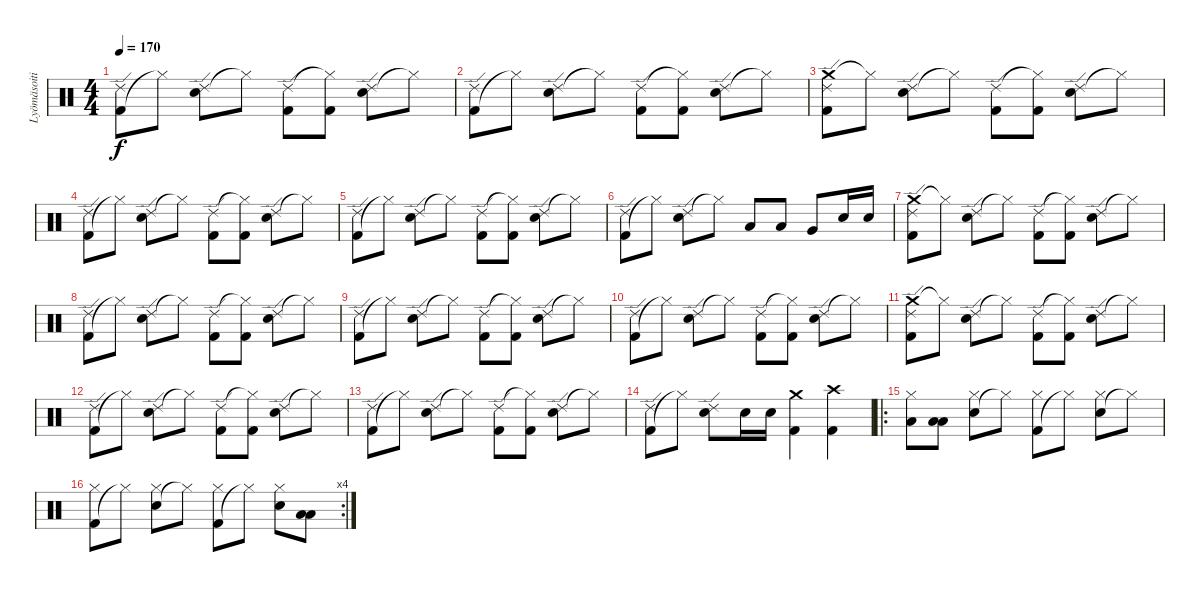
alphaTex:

\track ("Lyömäsoitin" "Lyömäsoiti") {instrument percussion}
\staff {score}
\articulation defaults
\ts (4 4)
\tempo 170
\clef neutral
\ks c
("Kick (hit) 2" "Ride (edge) 2").8{dy f} "Hi-Hat (closed)"{t}.8 ("Electric Snare (hit)" "Ride (edge) 2").8 "Hi-Hat (closed)"{t}.8 ("Kick (hit) 2" "Ride (edge) 2").8 ("Kick (hit) 2" "Hi-Hat (closed)"{t}).8 ("Electric Snare (hit)" "Ride (edge) 2").8 "Hi-Hat (closed)"{t}.8 |
("Kick (hit) 2" "Ride (edge) 2").8 "Hi-Hat (closed)"{t}.8 ("Electric Snare (hit)" "Ride (edge) 2").8 "Hi-Hat (closed)"{t}.8 ("Kick (hit) 2" "Ride (edge) 2").8 ("Kick (hit) 2" "Hi-Hat (closed)"{t}).8 ("Electric Snare (hit)" "Ride (edge) 2").8 "Hi-Hat (closed)"{t}.8 |
("Crash medium (hit)" "Kick (hit) 2" "Ride (edge) 2").8 "Hi-Hat (closed)"{t}.8 ("Electric Snare (hit)" "Ride (edge) 2").8 "Hi-Hat (closed)"{t}.8 ("Kick (hit) 2" "Ride (edge) 2").8 ("Kick (hit) 2" "Hi-Hat (closed)"{t}).8 ("Electric Snare (hit)" "Ride (edge) 2").8 "Hi-Hat (closed)"{t}.8 |
("Kick (hit) 2" "Ride (edge) 2").8 "Hi-Hat (closed)"{t}.8 ("Electric Snare (hit)" "Ride (edge) 2").8 "Hi-Hat (closed)"{t}.8 ("Kick (hit) 2" "Ride (edge) 2").8 ("Kick (hit) 2" "Hi-Hat (closed)"{t}).8 ("Electric Snare (hit)" "Ride (edge) 2").8 "Hi-Hat (closed)"{t}.8 |
("Kick (hit) 2" "Ride (edge) 2").8 "Hi-Hat (closed)"{t}.8 ("Electric Snare (hit)" "Ride (edge) 2").8 "Hi-Hat (closed)"{t}.8 ("Kick (hit) 2" "Ride (edge) 2").8 ("Kick (hit) 2" "Hi-Hat (closed)"{t}).8 ("Electric Snare (hit)" "Ride (edge) 2").8 "Hi-Hat (closed)"{t}.8 |
("Kick (hit) 2" "Ride (edge) 2").8 "Hi-Hat (closed)"{t}.8 ("Electric Snare (hit)" "Ride (edge) 2").8 "Hi-Hat (closed)"{t}.8 "Low Tom (hit)".8 "Low Tom (hit)".8 "Very Low Tom (hit)".8 "Electric Snare (hit)".16 "Electric Snare (hit)".16 |
("Crash medium (hit)" "Kick (hit) 2" "Ride (edge) 2").8 "Hi-Hat (closed)"{t}.8 ("Electric Snare (hit)" "Ride (edge) 2").8 "Hi-Hat (closed)"{t}.8 ("Kick (hit) 2" "Ride (edge) 2").8 ("Kick (hit) 2" "Hi-Hat (closed)"{t}).8 ("Electric Snare (hit)" "Ride (edge) 2").8 "Hi-Hat (closed)"{t}.8 |
("Kick (hit) 2" "Ride (edge) 2").8 "Hi-Hat (closed)"{t}.8 ("Electric Snare (hit)" "Ride (edge) 2").8 "Hi-Hat (closed)"{t}.8 ("Kick (hit) 2" "Ride (edge) 2").8 ("Kick (hit) 2" "Hi-Hat (closed)"{t}).8 ("Electric Snare (hit)" "Ride (edge) 2").8 "Hi-Hat (closed)"{t}.8 |
("Kick (hit) 2" "Ride (edge) 2").8 "Hi-Hat (closed)"{t}.8 ("Electric Snare (hit)" "Ride (edge) 2").8 "Hi-Hat (closed)"{t}.8 ("Kick (hit) 2" "Ride (edge) 2").8 ("Kick (hit) 2" "Hi-Hat (closed)"{t}).8 ("Electric Snare (hit)" "Ride (edge) 2").8 "Hi-Hat (closed)"{t}.8 |
("Kick (hit) 2" "Ride (edge) 2").8 "Hi-Hat (closed)"{t}.8 ("Electric Snare (hit)" "Ride (edge) 2").8 "Hi-Hat (closed)"{t}.8 ("Kick (hit) 2" "Ride (edge) 2").8 ("Kick (hit) 2" "Hi-Hat (closed)"{t}).8 ("Electric Snare (hit)" "Ride (edge) 2").8 "Hi-Hat (closed)"{t}.8 |
("Crash medium (hit)" "Kick (hit) 2" "Ride (edge) 2").8 "Hi-Hat (closed)"{t}.8 ("Electric Snare (hit)" "Ride (edge) 2").8 "Hi-Hat (closed)"{t}.8 ("Kick (hit) 2" "Ride (edge) 2").8 ("Kick (hit) 2" "Hi-Hat (closed)"{t}).8 ("Electric Snare (hit)" "Ride (edge) 2").8 "Hi-Hat (closed)"{t}.8 |
("Kick (hit) 2" "Ride (edge) 2").8 "Hi-Hat (closed)"{t}.8 ("Electric Snare (hit)" "Ride (edge) 2").8 "Hi-Hat (closed)"{t}.8 ("Kick (hit) 2" "Ride (edge) 2").8 ("Kick (hit) 2" "Hi-Hat (closed)"{t}).8 ("Electric Snare (hit)" "Ride (edge) 2").8 "Hi-Hat (closed)"{t}.8 |
("Kick (hit) 2" "Ride (edge) 2").8 "Hi-Hat (closed)"{t}.8 ("Electric Snare (hit)" "Ride (edge) 2").8 "Hi-Hat (closed)"{t}.8 ("Kick (hit) 2" "Ride (edge) 2").8 ("Kick (hit) 2" "Hi-Hat (closed)"{t}).8 ("Electric Snare (hit)" "Ride (edge) 2").8 "Hi-Hat (closed)"{t}.8 |
("Kick (hit) 2" "Ride (edge) 2").8 "Hi-Hat (closed)"{t}.8 ("Electric Snare (hit)" "Ride (edge) 2").8 "Electric Snare (hit)".16 "Electric Snare (hit)".16 ("Crash medium (hit)" "Kick (hit) 2").4 ("Crash high (hit)" "Kick (hit) 2").4 |
\ro
("Low Tom (hit)" "Hi-Hat (closed)").8 ("Low Tom (hit)" "Low Tom (hit)").8 ("Electric Snare (hit)" "Hi-Hat (closed)").8 "Hi-Hat (closed)"{t}.8 ("Kick (hit) 2" "Hi-Hat (closed)").8 "Hi-Hat (closed)"{t}.8 ("Electric Snare (hit)" "Hi-Hat (closed)").8 "Hi-Hat (closed)"{t}.8 |
\rc 4
("Kick (hit) 2" "Hi-Hat (closed)").8 "Hi-Hat (closed)"{t}.8 ("Electric Snare (hit)" "Hi-Hat (closed)").8 "Hi-Hat (closed)"{t}.8 ("Kick (hit) 2" "Hi-Hat (closed)").8 "Hi-Hat (closed)"{t}.8 ("Electric Snare (hit)" "Hi-Hat (closed)").8 ("Low Tom (hit)" "Low Tom (hit)").8
